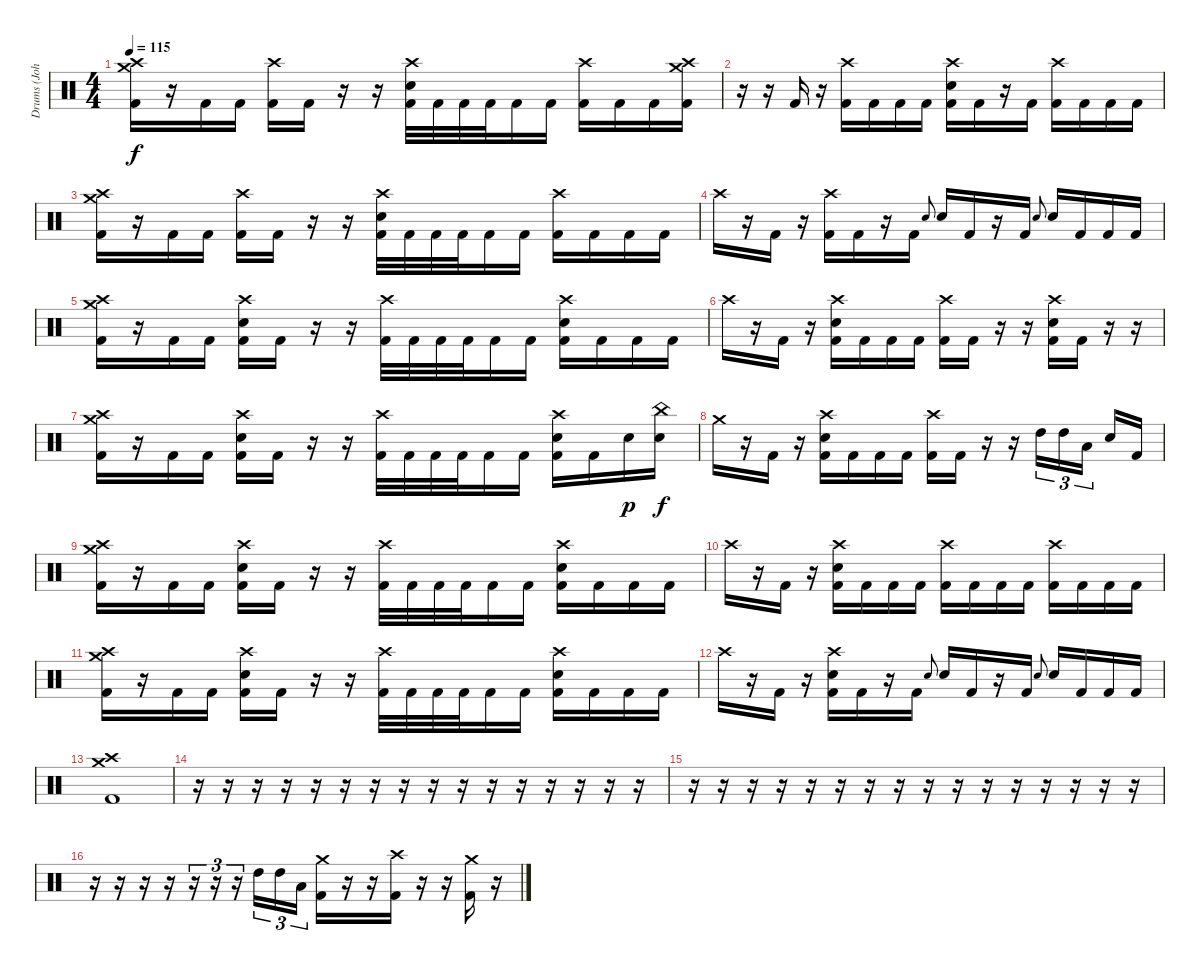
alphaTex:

\track ("Drums (Johno)" "Drums (Joh") {instrument percussion}
\staff {score}
\articulation defaults
\ts (4 4)
\tempo 115
\clef neutral
\ks c
("Crash medium (hit)" "Crash high (hit)" "Kick (hit) 2").16{dy f} r.16 "Kick (hit) 2".16 "Kick (hit) 2".16 ("Crash high (hit)" "Kick (hit) 2").16 "Kick (hit) 2".16 r.16 r.16 ("Crash high (hit)" "Electric Snare (hit)" "Kick (hit) 2").32 "Kick (hit) 2".32 "Kick (hit) 2".32 "Kick (hit) 2".32 "Kick (hit) 2".16 "Kick (hit) 2".16 ("Crash high (hit)" "Kick (hit) 2").16 "Kick (hit) 2".16 "Kick (hit) 2".16 ("Crash high (hit)" "Crash medium (hit)" "Kick (hit) 2").16 |
r.16 r.16 "Kick (hit) 2".16 r.16 ("Crash high (hit)" "Kick (hit) 2").16 "Kick (hit) 2".16 "Kick (hit) 2".16 "Kick (hit) 2".16 ("Crash high (hit)" "Electric Snare (hit)" "Kick (hit) 2").16 "Kick (hit) 2".16 r.16 "Kick (hit) 2".16 ("Crash high (hit)" "Kick (hit) 2").16 "Kick (hit) 2".16 "Kick (hit) 2".16 "Kick (hit) 2".16 |
("Crash medium (hit)" "Crash high (hit)" "Kick (hit) 2").16 r.16 "Kick (hit) 2".16 "Kick (hit) 2".16 ("Crash high (hit)" "Kick (hit) 2").16 "Kick (hit) 2".16 r.16 r.16 ("Crash high (hit)" "Electric Snare (hit)" "Kick (hit) 2").32 "Kick (hit) 2".32 "Kick (hit) 2".32 "Kick (hit) 2".32 "Kick (hit) 2".16 "Kick (hit) 2".16 ("Crash high (hit)" "Kick (hit) 2").16 "Kick (hit) 2".16 "Kick (hit) 2".16 "Kick (hit) 2".16 |
"Crash high (hit)".16 r.16 "Kick (hit) 2".16 r.16 ("Crash high (hit)" "Kick (hit) 2").16 "Kick (hit) 2".16 r.16 "Kick (hit) 2".16 "Electric Snare (hit)".8{gr onbeat} "Electric Snare (hit)".16 "Kick (hit) 2".16 r.16 "Kick (hit) 2".16 "Electric Snare (hit)".8{gr onbeat} "Electric Snare (hit)".16 "Kick (hit) 2".16 "Kick (hit) 2".16 "Kick (hit) 2".16 |
("Crash medium (hit)" "Crash high (hit)" "Kick (hit) 2").16 r.16 "Kick (hit) 2".16 "Kick (hit) 2".16 ("Crash high (hit)" "Electric Snare (hit)" "Kick (hit) 2").16 "Kick (hit) 2".16 r.16 r.16 ("Crash high (hit)" "Kick (hit) 2").32 "Kick (hit) 2".32 "Kick (hit) 2".32 "Kick (hit) 2".32 "Kick (hit) 2".16 "Kick (hit) 2".16 ("Crash high (hit)" "Electric Snare (hit)" "Kick (hit) 2").16 "Kick (hit) 2".16 "Kick (hit) 2".16 "Kick (hit) 2".16 |
"Crash high (hit)".16 r.16 "Kick (hit) 2".16 r.16 ("Crash high (hit)" "Electric Snare (hit)" "Kick (hit) 2").16 "Kick (hit) 2".16 "Kick (hit) 2".16 "Kick (hit) 2".16 ("Crash high (hit)" "Kick (hit) 2").16 "Kick (hit) 2".16 r.16 r.16 ("Crash high (hit)" "Electric Snare (hit)" "Kick (hit) 2").16 "Kick (hit) 2".16 r.16 r.16 |
("Crash medium (hit)" "Crash high (hit)" "Kick (hit) 2").16 r.16 "Kick (hit) 2".16 "Kick (hit) 2".16 ("Crash high (hit)" "Electric Snare (hit)" "Kick (hit) 2").16 "Kick (hit) 2".16 r.16 r.16 ("Crash high (hit)" "Kick (hit) 2").32 "Kick (hit) 2".32 "Kick (hit) 2".32 "Kick (hit) 2".32 "Kick (hit) 2".16 "Kick (hit) 2".16 ("Crash high (hit)" "Electric Snare (hit)" "Kick (hit) 2").16 "Kick (hit) 2".16 "Electric Snare (hit)".16{dy p} ("China (hit)" "Electric Snare (hit)").16{dy f} |
"Crash medium (hit)".16 r.16 "Kick (hit) 2".16 r.16 ("Crash high (hit)" "Electric Snare (hit)" "Kick (hit) 2").16 "Kick (hit) 2".16 "Kick (hit) 2".16 "Kick (hit) 2".16 ("Crash high (hit)" "Kick (hit) 2").16 "Kick (hit) 2".16 r.16 r.16 "High Tom (hit)".16{tu (3 2)} "High Tom (hit)".16{tu (3 2)} "Low Floor Tom (hit)".16{tu (3 2) beam splitsecondary} "Electric Snare (hit)".16 "Kick (hit) 2".16 |
("Crash medium (hit)" "Crash high (hit)" "Kick (hit) 2").16 r.16 "Kick (hit) 2".16 "Kick (hit) 2".16 ("Crash high (hit)" "Electric Snare (hit)" "Kick (hit) 2").16 "Kick (hit) 2".16 r.16 r.16 ("Crash high (hit)" "Kick (hit) 2").32 "Kick (hit) 2".32 "Kick (hit) 2".32 "Kick (hit) 2".32 "Kick (hit) 2".16 "Kick (hit) 2".16 ("Crash high (hit)" "Electric Snare (hit)" "Kick (hit) 2").16 "Kick (hit) 2".16 "Kick (hit) 2".16 "Kick (hit) 2".16 |
"Crash high (hit)".16 r.16 "Kick (hit) 2".16 r.16 ("Crash high (hit)" "Electric Snare (hit)" "Kick (hit) 2").16 "Kick (hit) 2".16 "Kick (hit) 2".16 "Kick (hit) 2".16 ("Crash high (hit)" "Kick (hit) 2").16 "Kick (hit) 2".16 "Kick (hit) 2".16 "Kick (hit) 2".16 ("Crash high (hit)" "Kick (hit) 2").16 "Kick (hit) 2".16 "Kick (hit) 2".16 "Kick (hit) 2".16 |
("Crash medium (hit)" "Crash high (hit)" "Kick (hit) 2").16 r.16 "Kick (hit) 2".16 "Kick (hit) 2".16 ("Crash high (hit)" "Electric Snare (hit)" "Kick (hit) 2").16 "Kick (hit) 2".16 r.16 r.16 ("Crash high (hit)" "Kick (hit) 2").32 "Kick (hit) 2".32 "Kick (hit) 2".32 "Kick (hit) 2".32 "Kick (hit) 2".16 "Kick (hit) 2".16 ("Crash high (hit)" "Electric Snare (hit)" "Kick (hit) 2").16 "Kick (hit) 2".16 "Kick (hit) 2".16 "Kick (hit) 2".16 |
"Crash high (hit)".16 r.16 "Kick (hit) 2".16 r.16 ("Crash high (hit)" "Electric Snare (hit)" "Kick (hit) 2").16 "Kick (hit) 2".16 r.16 "Kick (hit) 2".16 "Electric Snare (hit)".8{gr onbeat} "Electric Snare (hit)".16 "Kick (hit) 2".16 r.16 "Kick (hit) 2".16 "Electric Snare (hit)".8{gr onbeat} "Electric Snare (hit)".16 "Kick (hit) 2".16 "Kick (hit) 2".16 "Kick (hit) 2".16 |
("Crash medium (hit)" "Crash high (hit)" "Kick (hit) 2").1 |
r.16 r.16 r.16 r.16 r.16 r.16 r.16 r.16 r.16 r.16 r.16 r.16 r.16 r.16 r.16 r.16 |
r.16 r.16 r.16 r.16 r.16 r.16 r.16 r.16 r.16 r.16 r.16 r.16 r.16 r.16 r.16 r.16 |
r.16 r.16 r.16 r.16 r.16{tu (3 2)} r.16{tu (3 2)} r.16{tu (3 2)} "High Tom (hit)".16{tu (3 2)} "High Tom (hit)".16{tu (3 2)} "Low Floor Tom (hit)".16{tu (3 2)} ("Crash medium (hit)" "Kick (hit) 2").16 r.16 r.16 ("Crash high (hit)" "Kick (hit) 2").16 r.16 r.16 ("Crash medium (hit)" "Kick (hit) 2").16 r.16
